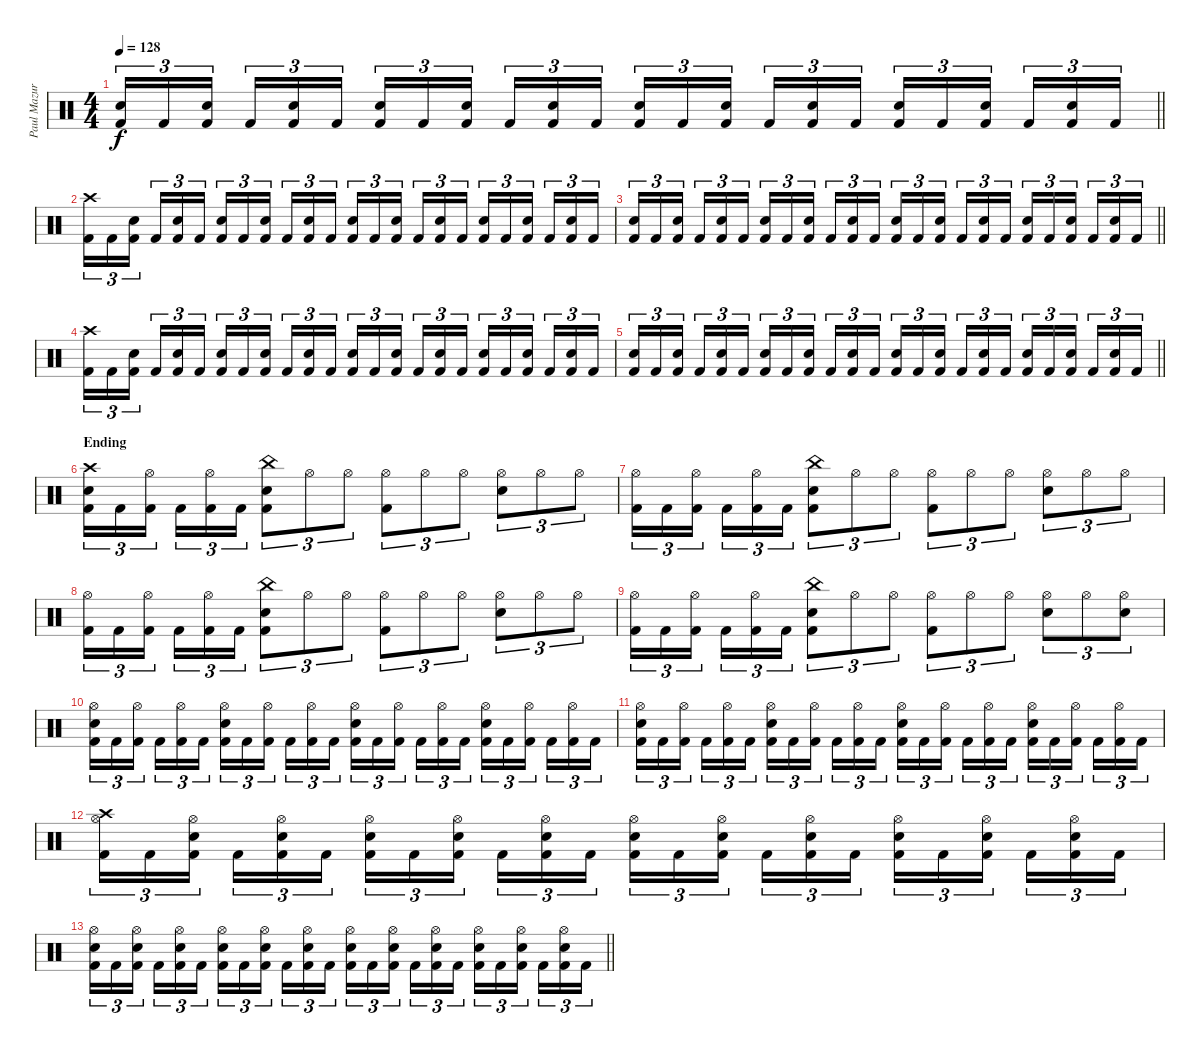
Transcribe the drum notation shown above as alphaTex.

\track ("Paul Mazurkiewicz" "Paul Mazur") {instrument percussion}
\staff {score}
\articulation defaults
\ts (4 4)
\tempo 128
\clef neutral
\barLineRight lightlight
\ks c
("Snare (hit) 2" "Kick (hit) 2").16{tu (3 2) dy f} "Kick (hit) 2".16{tu (3 2)} ("Snare (hit) 2" "Kick (hit) 2").16{tu (3 2)} "Kick (hit) 2".16{tu (3 2)} ("Snare (hit) 2" "Kick (hit) 2").16{tu (3 2)} "Kick (hit) 2".16{tu (3 2)} ("Snare (hit) 2" "Kick (hit) 2").16{tu (3 2)} "Kick (hit) 2".16{tu (3 2)} ("Snare (hit) 2" "Kick (hit) 2").16{tu (3 2)} "Kick (hit) 2".16{tu (3 2)} ("Snare (hit) 2" "Kick (hit) 2").16{tu (3 2)} "Kick (hit) 2".16{tu (3 2)} ("Snare (hit) 2" "Kick (hit) 2").16{tu (3 2)} "Kick (hit) 2".16{tu (3 2)} ("Snare (hit) 2" "Kick (hit) 2").16{tu (3 2)} "Kick (hit) 2".16{tu (3 2)} ("Snare (hit) 2" "Kick (hit) 2").16{tu (3 2)} "Kick (hit) 2".16{tu (3 2)} ("Snare (hit) 2" "Kick (hit) 2").16{tu (3 2)} "Kick (hit) 2".16{tu (3 2)} ("Snare (hit) 2" "Kick (hit) 2").16{tu (3 2)} "Kick (hit) 2".16{tu (3 2)} ("Snare (hit) 2" "Kick (hit) 2").16{tu (3 2)} "Kick (hit) 2".16{tu (3 2)} |
("Crash high (hit)" "Kick (hit) 2").16{tu (3 2)} "Kick (hit) 2".16{tu (3 2)} ("Snare (hit) 2" "Kick (hit) 2").16{tu (3 2)} "Kick (hit) 2".16{tu (3 2)} ("Snare (hit) 2" "Kick (hit) 2").16{tu (3 2)} "Kick (hit) 2".16{tu (3 2)} ("Snare (hit) 2" "Kick (hit) 2").16{tu (3 2)} "Kick (hit) 2".16{tu (3 2)} ("Snare (hit) 2" "Kick (hit) 2").16{tu (3 2)} "Kick (hit) 2".16{tu (3 2)} ("Snare (hit) 2" "Kick (hit) 2").16{tu (3 2)} "Kick (hit) 2".16{tu (3 2)} ("Snare (hit) 2" "Kick (hit) 2").16{tu (3 2)} "Kick (hit) 2".16{tu (3 2)} ("Snare (hit) 2" "Kick (hit) 2").16{tu (3 2)} "Kick (hit) 2".16{tu (3 2)} ("Snare (hit) 2" "Kick (hit) 2").16{tu (3 2)} "Kick (hit) 2".16{tu (3 2)} ("Snare (hit) 2" "Kick (hit) 2").16{tu (3 2)} "Kick (hit) 2".16{tu (3 2)} ("Snare (hit) 2" "Kick (hit) 2").16{tu (3 2)} "Kick (hit) 2".16{tu (3 2)} ("Snare (hit) 2" "Kick (hit) 2").16{tu (3 2)} "Kick (hit) 2".16{tu (3 2)} |
\barLineRight lightlight
("Snare (hit) 2" "Kick (hit) 2").16{tu (3 2)} "Kick (hit) 2".16{tu (3 2)} ("Snare (hit) 2" "Kick (hit) 2").16{tu (3 2)} "Kick (hit) 2".16{tu (3 2)} ("Snare (hit) 2" "Kick (hit) 2").16{tu (3 2)} "Kick (hit) 2".16{tu (3 2)} ("Snare (hit) 2" "Kick (hit) 2").16{tu (3 2)} "Kick (hit) 2".16{tu (3 2)} ("Snare (hit) 2" "Kick (hit) 2").16{tu (3 2)} "Kick (hit) 2".16{tu (3 2)} ("Snare (hit) 2" "Kick (hit) 2").16{tu (3 2)} "Kick (hit) 2".16{tu (3 2)} ("Snare (hit) 2" "Kick (hit) 2").16{tu (3 2)} "Kick (hit) 2".16{tu (3 2)} ("Snare (hit) 2" "Kick (hit) 2").16{tu (3 2)} "Kick (hit) 2".16{tu (3 2)} ("Snare (hit) 2" "Kick (hit) 2").16{tu (3 2)} "Kick (hit) 2".16{tu (3 2)} ("Snare (hit) 2" "Kick (hit) 2").16{tu (3 2)} "Kick (hit) 2".16{tu (3 2)} ("Snare (hit) 2" "Kick (hit) 2").16{tu (3 2)} "Kick (hit) 2".16{tu (3 2)} ("Snare (hit) 2" "Kick (hit) 2").16{tu (3 2)} "Kick (hit) 2".16{tu (3 2)} |
("Crash high (hit)" "Kick (hit) 2").16{tu (3 2)} "Kick (hit) 2".16{tu (3 2)} ("Snare (hit) 2" "Kick (hit) 2").16{tu (3 2)} "Kick (hit) 2".16{tu (3 2)} ("Snare (hit) 2" "Kick (hit) 2").16{tu (3 2)} "Kick (hit) 2".16{tu (3 2)} ("Snare (hit) 2" "Kick (hit) 2").16{tu (3 2)} "Kick (hit) 2".16{tu (3 2)} ("Snare (hit) 2" "Kick (hit) 2").16{tu (3 2)} "Kick (hit) 2".16{tu (3 2)} ("Snare (hit) 2" "Kick (hit) 2").16{tu (3 2)} "Kick (hit) 2".16{tu (3 2)} ("Snare (hit) 2" "Kick (hit) 2").16{tu (3 2)} "Kick (hit) 2".16{tu (3 2)} ("Snare (hit) 2" "Kick (hit) 2").16{tu (3 2)} "Kick (hit) 2".16{tu (3 2)} ("Snare (hit) 2" "Kick (hit) 2").16{tu (3 2)} "Kick (hit) 2".16{tu (3 2)} ("Snare (hit) 2" "Kick (hit) 2").16{tu (3 2)} "Kick (hit) 2".16{tu (3 2)} ("Snare (hit) 2" "Kick (hit) 2").16{tu (3 2)} "Kick (hit) 2".16{tu (3 2)} ("Snare (hit) 2" "Kick (hit) 2").16{tu (3 2)} "Kick (hit) 2".16{tu (3 2)} |
\barLineRight lightlight
("Snare (hit) 2" "Kick (hit) 2").16{tu (3 2)} "Kick (hit) 2".16{tu (3 2)} ("Snare (hit) 2" "Kick (hit) 2").16{tu (3 2)} "Kick (hit) 2".16{tu (3 2)} ("Snare (hit) 2" "Kick (hit) 2").16{tu (3 2)} "Kick (hit) 2".16{tu (3 2)} ("Snare (hit) 2" "Kick (hit) 2").16{tu (3 2)} "Kick (hit) 2".16{tu (3 2)} ("Snare (hit) 2" "Kick (hit) 2").16{tu (3 2)} "Kick (hit) 2".16{tu (3 2)} ("Snare (hit) 2" "Kick (hit) 2").16{tu (3 2)} "Kick (hit) 2".16{tu (3 2)} ("Snare (hit) 2" "Kick (hit) 2").16{tu (3 2)} "Kick (hit) 2".16{tu (3 2)} ("Snare (hit) 2" "Kick (hit) 2").16{tu (3 2)} "Kick (hit) 2".16{tu (3 2)} ("Snare (hit) 2" "Kick (hit) 2").16{tu (3 2)} "Kick (hit) 2".16{tu (3 2)} ("Snare (hit) 2" "Kick (hit) 2").16{tu (3 2)} "Kick (hit) 2".16{tu (3 2)} ("Snare (hit) 2" "Kick (hit) 2").16{tu (3 2)} "Kick (hit) 2".16{tu (3 2)} ("Snare (hit) 2" "Kick (hit) 2").16{tu (3 2)} "Kick (hit) 2".16{tu (3 2)} |
\section ("" "Ending")
("Crash high (hit)" "Kick (hit) 2" "Snare (hit) 2").16{tu (3 2)} "Kick (hit) 2".16{tu (3 2)} ("Hi-Hat (open)" "Kick (hit) 2").16{tu (3 2)} "Kick (hit) 2".16{tu (3 2)} ("Hi-Hat (open)" "Kick (hit) 2").16{tu (3 2)} "Kick (hit) 2".16{tu (3 2)} ("China (hit)" "Kick (hit) 2" "Snare (hit) 2").8{tu (3 2)} "Hi-Hat (open)".8{tu (3 2)} "Hi-Hat (open)".8{tu (3 2)} ("Hi-Hat (open)" "Kick (hit) 2").8{tu (3 2)} "Hi-Hat (open)".8{tu (3 2)} "Hi-Hat (open)".8{tu (3 2)} ("Hi-Hat (open)" "Snare (hit) 2").8{tu (3 2)} "Hi-Hat (open)".8{tu (3 2)} "Hi-Hat (open)".8{tu (3 2)} |
("Hi-Hat (open)" "Kick (hit) 2").16{tu (3 2)} "Kick (hit) 2".16{tu (3 2)} ("Hi-Hat (open)" "Kick (hit) 2").16{tu (3 2)} "Kick (hit) 2".16{tu (3 2)} ("Hi-Hat (open)" "Kick (hit) 2").16{tu (3 2)} "Kick (hit) 2".16{tu (3 2)} ("China (hit)" "Kick (hit) 2" "Snare (hit) 2").8{tu (3 2)} "Hi-Hat (open)".8{tu (3 2)} "Hi-Hat (open)".8{tu (3 2)} ("Hi-Hat (open)" "Kick (hit) 2").8{tu (3 2)} "Hi-Hat (open)".8{tu (3 2)} "Hi-Hat (open)".8{tu (3 2)} ("Hi-Hat (open)" "Snare (hit) 2").8{tu (3 2)} "Hi-Hat (open)".8{tu (3 2)} "Hi-Hat (open)".8{tu (3 2)} |
("Hi-Hat (open)" "Kick (hit) 2").16{tu (3 2)} "Kick (hit) 2".16{tu (3 2)} ("Hi-Hat (open)" "Kick (hit) 2").16{tu (3 2)} "Kick (hit) 2".16{tu (3 2)} ("Hi-Hat (open)" "Kick (hit) 2").16{tu (3 2)} "Kick (hit) 2".16{tu (3 2)} ("China (hit)" "Kick (hit) 2" "Snare (hit) 2").8{tu (3 2)} "Hi-Hat (open)".8{tu (3 2)} "Hi-Hat (open)".8{tu (3 2)} ("Hi-Hat (open)" "Kick (hit) 2").8{tu (3 2)} "Hi-Hat (open)".8{tu (3 2)} "Hi-Hat (open)".8{tu (3 2)} ("Hi-Hat (open)" "Snare (hit) 2").8{tu (3 2)} "Hi-Hat (open)".8{tu (3 2)} "Hi-Hat (open)".8{tu (3 2)} |
("Hi-Hat (open)" "Kick (hit) 2").16{tu (3 2)} "Kick (hit) 2".16{tu (3 2)} ("Hi-Hat (open)" "Kick (hit) 2").16{tu (3 2)} "Kick (hit) 2".16{tu (3 2)} ("Hi-Hat (open)" "Kick (hit) 2").16{tu (3 2)} "Kick (hit) 2".16{tu (3 2)} ("China (hit)" "Kick (hit) 2" "Snare (hit) 2").8{tu (3 2)} "Hi-Hat (open)".8{tu (3 2)} "Hi-Hat (open)".8{tu (3 2)} ("Hi-Hat (open)" "Kick (hit) 2").8{tu (3 2)} "Hi-Hat (open)".8{tu (3 2)} "Hi-Hat (open)".8{tu (3 2)} ("Hi-Hat (open)" "Snare (hit) 2").8{tu (3 2)} "Hi-Hat (open)".8{tu (3 2)} ("Hi-Hat (open)" "Snare (hit) 2").8{tu (3 2)} |
("Snare (hit) 2" "Hi-Hat (open)" "Kick (hit) 2").16{tu (3 2)} "Kick (hit) 2".16{tu (3 2)} ("Hi-Hat (open)" "Kick (hit) 2").16{tu (3 2)} "Kick (hit) 2".16{tu (3 2)} ("Hi-Hat (open)" "Kick (hit) 2").16{tu (3 2)} "Kick (hit) 2".16{tu (3 2)} ("Snare (hit) 2" "Hi-Hat (open)" "Kick (hit) 2").16{tu (3 2)} "Kick (hit) 2".16{tu (3 2)} ("Hi-Hat (open)" "Kick (hit) 2").16{tu (3 2)} "Kick (hit) 2".16{tu (3 2)} ("Hi-Hat (open)" "Kick (hit) 2").16{tu (3 2)} "Kick (hit) 2".16{tu (3 2)} ("Snare (hit) 2" "Hi-Hat (open)" "Kick (hit) 2").16{tu (3 2)} "Kick (hit) 2".16{tu (3 2)} ("Hi-Hat (open)" "Kick (hit) 2").16{tu (3 2)} "Kick (hit) 2".16{tu (3 2)} ("Hi-Hat (open)" "Kick (hit) 2").16{tu (3 2)} "Kick (hit) 2".16{tu (3 2)} ("Snare (hit) 2" "Hi-Hat (open)" "Kick (hit) 2").16{tu (3 2)} "Kick (hit) 2".16{tu (3 2)} ("Hi-Hat (open)" "Kick (hit) 2").16{tu (3 2)} "Kick (hit) 2".16{tu (3 2)} ("Hi-Hat (open)" "Kick (hit) 2").16{tu (3 2)} "Kick (hit) 2".16{tu (3 2)} |
("Snare (hit) 2" "Hi-Hat (open)" "Kick (hit) 2").16{tu (3 2)} "Kick (hit) 2".16{tu (3 2)} ("Hi-Hat (open)" "Kick (hit) 2").16{tu (3 2)} "Kick (hit) 2".16{tu (3 2)} ("Hi-Hat (open)" "Kick (hit) 2").16{tu (3 2)} "Kick (hit) 2".16{tu (3 2)} ("Snare (hit) 2" "Hi-Hat (open)" "Kick (hit) 2").16{tu (3 2)} "Kick (hit) 2".16{tu (3 2)} ("Hi-Hat (open)" "Kick (hit) 2").16{tu (3 2)} "Kick (hit) 2".16{tu (3 2)} ("Hi-Hat (open)" "Kick (hit) 2").16{tu (3 2)} "Kick (hit) 2".16{tu (3 2)} ("Snare (hit) 2" "Hi-Hat (open)" "Kick (hit) 2").16{tu (3 2)} "Kick (hit) 2".16{tu (3 2)} ("Hi-Hat (open)" "Kick (hit) 2").16{tu (3 2)} "Kick (hit) 2".16{tu (3 2)} ("Hi-Hat (open)" "Kick (hit) 2").16{tu (3 2)} "Kick (hit) 2".16{tu (3 2)} ("Snare (hit) 2" "Hi-Hat (open)" "Kick (hit) 2").16{tu (3 2)} "Kick (hit) 2".16{tu (3 2)} ("Hi-Hat (open)" "Kick (hit) 2").16{tu (3 2)} "Kick (hit) 2".16{tu (3 2)} ("Hi-Hat (open)" "Kick (hit) 2").16{tu (3 2)} "Kick (hit) 2".16{tu (3 2)} |
("Hi-Hat (open)" "Crash high (hit)" "Kick (hit) 2").16{tu (3 2)} "Kick (hit) 2".16{tu (3 2)} ("Hi-Hat (open)" "Snare (hit) 2" "Kick (hit) 2").16{tu (3 2)} "Kick (hit) 2".16{tu (3 2)} ("Hi-Hat (open)" "Snare (hit) 2" "Kick (hit) 2").16{tu (3 2)} "Kick (hit) 2".16{tu (3 2)} ("Hi-Hat (open)" "Snare (hit) 2" "Kick (hit) 2").16{tu (3 2)} "Kick (hit) 2".16{tu (3 2)} ("Hi-Hat (open)" "Snare (hit) 2" "Kick (hit) 2").16{tu (3 2)} "Kick (hit) 2".16{tu (3 2)} ("Hi-Hat (open)" "Snare (hit) 2" "Kick (hit) 2").16{tu (3 2)} "Kick (hit) 2".16{tu (3 2)} ("Hi-Hat (open)" "Snare (hit) 2" "Kick (hit) 2").16{tu (3 2)} "Kick (hit) 2".16{tu (3 2)} ("Hi-Hat (open)" "Snare (hit) 2" "Kick (hit) 2").16{tu (3 2)} "Kick (hit) 2".16{tu (3 2)} ("Hi-Hat (open)" "Snare (hit) 2" "Kick (hit) 2").16{tu (3 2)} "Kick (hit) 2".16{tu (3 2)} ("Hi-Hat (open)" "Snare (hit) 2" "Kick (hit) 2").16{tu (3 2)} "Kick (hit) 2".16{tu (3 2)} ("Hi-Hat (open)" "Snare (hit) 2" "Kick (hit) 2").16{tu (3 2)} "Kick (hit) 2".16{tu (3 2)} ("Hi-Hat (open)" "Snare (hit) 2" "Kick (hit) 2").16{tu (3 2)} "Kick (hit) 2".16{tu (3 2)} |
\barLineRight lightlight
("Hi-Hat (open)" "Snare (hit) 2" "Kick (hit) 2").16{tu (3 2)} "Kick (hit) 2".16{tu (3 2)} ("Hi-Hat (open)" "Snare (hit) 2" "Kick (hit) 2").16{tu (3 2)} "Kick (hit) 2".16{tu (3 2)} ("Hi-Hat (open)" "Snare (hit) 2" "Kick (hit) 2").16{tu (3 2)} "Kick (hit) 2".16{tu (3 2)} ("Hi-Hat (open)" "Snare (hit) 2" "Kick (hit) 2").16{tu (3 2)} "Kick (hit) 2".16{tu (3 2)} ("Hi-Hat (open)" "Snare (hit) 2" "Kick (hit) 2").16{tu (3 2)} "Kick (hit) 2".16{tu (3 2)} ("Hi-Hat (open)" "Snare (hit) 2" "Kick (hit) 2").16{tu (3 2)} "Kick (hit) 2".16{tu (3 2)} ("Hi-Hat (open)" "Snare (hit) 2" "Kick (hit) 2").16{tu (3 2)} "Kick (hit) 2".16{tu (3 2)} ("Hi-Hat (open)" "Snare (hit) 2" "Kick (hit) 2").16{tu (3 2)} "Kick (hit) 2".16{tu (3 2)} ("Hi-Hat (open)" "Snare (hit) 2" "Kick (hit) 2").16{tu (3 2)} "Kick (hit) 2".16{tu (3 2)} ("Hi-Hat (open)" "Snare (hit) 2" "Kick (hit) 2").16{tu (3 2)} "Kick (hit) 2".16{tu (3 2)} ("Hi-Hat (open)" "Snare (hit) 2" "Kick (hit) 2").16{tu (3 2)} "Kick (hit) 2".16{tu (3 2)} ("Hi-Hat (open)" "Snare (hit) 2" "Kick (hit) 2").16{tu (3 2)} "Kick (hit) 2".16{tu (3 2)}
